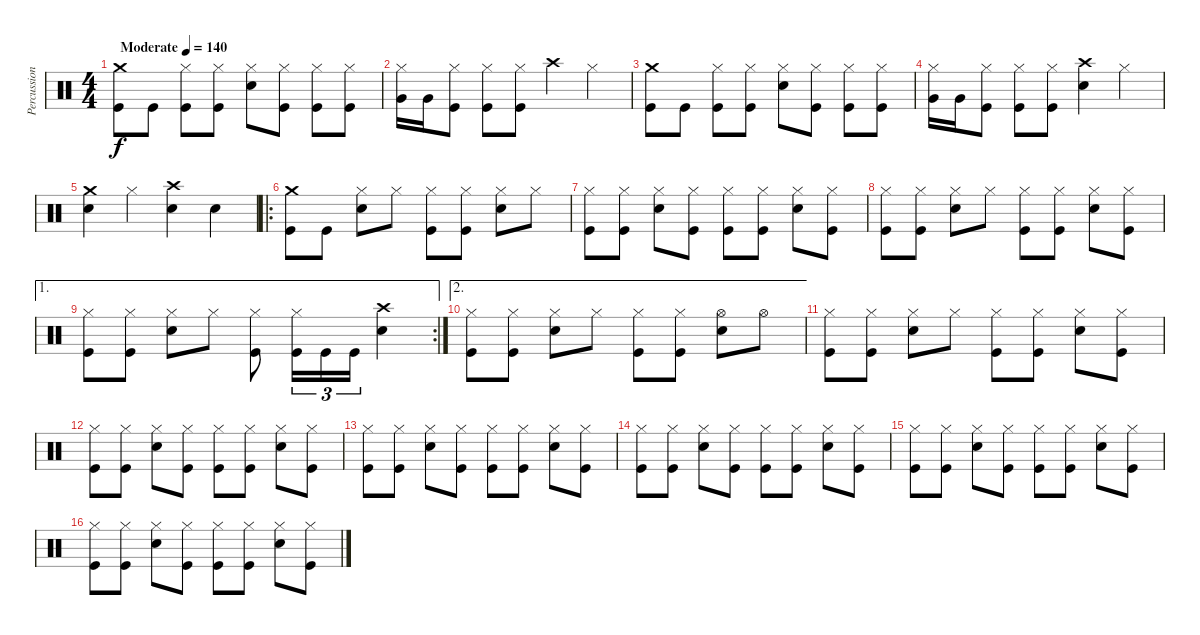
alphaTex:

\track ("Percussion" "Percussion") {instrument percussion}
\staff {score}
\articulation defaults
\ts (4 4)
\tempo (140 "Moderate")
\clef neutral
\ks c
("Kick (hit)" "Crash medium (hit)").8{dy f} "Kick (hit)".8 ("Kick (hit)" "Hi-Hat (closed)").8 ("Kick (hit)" "Hi-Hat (closed)").8 ("Snare (hit) 2" "Hi-Hat (closed)").8 ("Kick (hit)" "Hi-Hat (closed)").8 ("Kick (hit)" "Hi-Hat (closed)").8 ("Kick (hit)" "Hi-Hat (closed)").8 |
("Very Low Tom (hit)" "Hi-Hat (closed)").16 "Very Low Tom (hit)".16 ("Kick (hit)" "Hi-Hat (closed)").8 ("Kick (hit)" "Hi-Hat (closed)").8 ("Kick (hit)" "Hi-Hat (closed)").8 "Crash high (hit)".4 "Hi-Hat (closed)".4 |
("Kick (hit)" "Crash medium (hit)").8 "Kick (hit)".8 ("Kick (hit)" "Hi-Hat (closed)").8 ("Kick (hit)" "Hi-Hat (closed)").8 ("Snare (hit) 2" "Hi-Hat (closed)").8 ("Kick (hit)" "Hi-Hat (closed)").8 ("Kick (hit)" "Hi-Hat (closed)").8 ("Kick (hit)" "Hi-Hat (closed)").8 |
("Very Low Tom (hit)" "Hi-Hat (closed)").16 "Very Low Tom (hit)".16 ("Kick (hit)" "Hi-Hat (closed)").8 ("Kick (hit)" "Hi-Hat (closed)").8 ("Kick (hit)" "Hi-Hat (closed)").8 ("Snare (hit) 2" "Crash high (hit)").4 "Hi-Hat (closed)".4 |
("Snare (hit) 2" "Crash medium (hit)").4 "Hi-Hat (closed)".4 ("Snare (hit) 2" "Crash high (hit)").4 "Snare (hit) 2".4 |
\ro
("Kick (hit)" "Crash medium (hit)").8 "Kick (hit)".8 ("Snare (hit) 2" "Hi-Hat (closed)").8 "Hi-Hat (closed)".8 ("Kick (hit)" "Hi-Hat (closed)").8 ("Kick (hit)" "Hi-Hat (closed)").8 ("Snare (hit) 2" "Hi-Hat (closed)").8 "Hi-Hat (closed)".8 |
("Kick (hit)" "Hi-Hat (closed)").8 ("Kick (hit)" "Hi-Hat (closed)").8 ("Snare (hit) 2" "Hi-Hat (closed)").8 ("Kick (hit)" "Hi-Hat (closed)").8 ("Kick (hit)" "Hi-Hat (closed)").8 ("Kick (hit)" "Hi-Hat (closed)").8 ("Snare (hit) 2" "Hi-Hat (closed)").8 ("Kick (hit)" "Hi-Hat (closed)").8 |
("Kick (hit)" "Hi-Hat (closed)").8 ("Kick (hit)" "Hi-Hat (closed)").8 ("Snare (hit) 2" "Hi-Hat (closed)").8 "Hi-Hat (closed)".8 ("Kick (hit)" "Hi-Hat (closed)").8 ("Kick (hit)" "Hi-Hat (closed)").8 ("Snare (hit) 2" "Hi-Hat (closed)").8 ("Kick (hit)" "Hi-Hat (closed)").8 |
\ae 1
\rc 2
("Kick (hit)" "Hi-Hat (closed)").8 ("Kick (hit)" "Hi-Hat (closed)").8 ("Snare (hit) 2" "Hi-Hat (closed)").8 "Hi-Hat (closed)".8 ("Kick (hit)" "Hi-Hat (closed)").8 ("Kick (hit)" "Hi-Hat (closed)").16{tu (3 2)} "Kick (hit)".16{tu (3 2)} "Kick (hit)".16{tu (3 2)} ("Snare (hit) 2" "Crash high (hit)").4 |
\ae 2
("Kick (hit)" "Hi-Hat (closed)").8 ("Kick (hit)" "Hi-Hat (closed)").8 ("Snare (hit) 2" "Hi-Hat (closed)").8 "Hi-Hat (closed)".8 ("Kick (hit)" "Hi-Hat (closed)").8 ("Kick (hit)" "Hi-Hat (closed)").8 ("Snare (hit) 2" "Hi-Hat (open)").8 "Hi-Hat (open)".8 |
("Kick (hit)" "Hi-Hat (closed)").8 ("Kick (hit)" "Hi-Hat (closed)").8 ("Snare (hit) 2" "Hi-Hat (closed)").8 "Hi-Hat (closed)".8 ("Kick (hit)" "Hi-Hat (closed)").8 ("Kick (hit)" "Hi-Hat (closed)").8 ("Snare (hit) 2" "Hi-Hat (closed)").8 ("Kick (hit)" "Hi-Hat (closed)").8 |
("Kick (hit)" "Hi-Hat (closed)").8 ("Kick (hit)" "Hi-Hat (closed)").8 ("Snare (hit) 2" "Hi-Hat (closed)").8 ("Kick (hit)" "Hi-Hat (closed)").8 ("Kick (hit)" "Hi-Hat (closed)").8 ("Kick (hit)" "Hi-Hat (closed)").8 ("Snare (hit) 2" "Hi-Hat (closed)").8 ("Kick (hit)" "Hi-Hat (closed)").8 |
("Kick (hit)" "Hi-Hat (closed)").8 ("Kick (hit)" "Hi-Hat (closed)").8 ("Snare (hit) 2" "Hi-Hat (closed)").8 ("Kick (hit)" "Hi-Hat (closed)").8 ("Kick (hit)" "Hi-Hat (closed)").8 ("Kick (hit)" "Hi-Hat (closed)").8 ("Snare (hit) 2" "Hi-Hat (closed)").8 ("Kick (hit)" "Hi-Hat (closed)").8 |
("Kick (hit)" "Hi-Hat (closed)").8 ("Kick (hit)" "Hi-Hat (closed)").8 ("Snare (hit) 2" "Hi-Hat (closed)").8 ("Kick (hit)" "Hi-Hat (closed)").8 ("Kick (hit)" "Hi-Hat (closed)").8 ("Kick (hit)" "Hi-Hat (closed)").8 ("Snare (hit) 2" "Hi-Hat (closed)").8 ("Kick (hit)" "Hi-Hat (closed)").8 |
("Kick (hit)" "Hi-Hat (closed)").8 ("Kick (hit)" "Hi-Hat (closed)").8 ("Snare (hit) 2" "Hi-Hat (closed)").8 ("Kick (hit)" "Hi-Hat (closed)").8 ("Kick (hit)" "Hi-Hat (closed)").8 ("Kick (hit)" "Hi-Hat (closed)").8 ("Snare (hit) 2" "Hi-Hat (closed)").8 ("Kick (hit)" "Hi-Hat (closed)").8 |
("Kick (hit)" "Hi-Hat (closed)").8 ("Kick (hit)" "Hi-Hat (closed)").8 ("Snare (hit) 2" "Hi-Hat (closed)").8 ("Kick (hit)" "Hi-Hat (closed)").8 ("Kick (hit)" "Hi-Hat (closed)").8 ("Kick (hit)" "Hi-Hat (closed)").8 ("Snare (hit) 2" "Hi-Hat (closed)").8 ("Kick (hit)" "Hi-Hat (closed)").8
